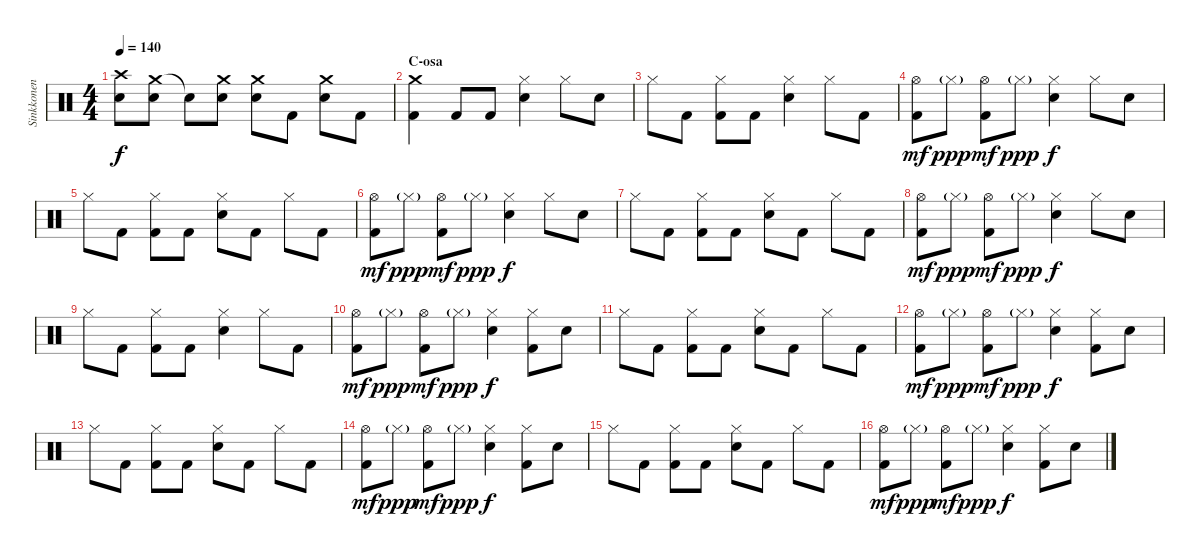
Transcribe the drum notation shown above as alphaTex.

\track ("Sinkkonen" "Sinkkonen") {instrument percussion}
\staff {score}
\articulation defaults
\ts (4 4)
\tempo 140
\clef neutral
\ks c
("Crash high (hit)" "Snare (hit) 2").8{dy f} ("Crash medium (hit)" "Snare (hit) 2").8 "Snare (hit) 2"{t}.8 ("Crash medium (hit)" "Snare (hit) 2").8 ("Crash medium (hit)" "Snare (hit) 2").8 "Kick (hit) 2".8 ("Crash medium (hit)" "Snare (hit) 2").8 "Kick (hit) 2".8 |
\section ("" "C-osa")
("Kick (hit) 2" "Crash medium (hit)").4 "Kick (hit) 2".8 "Kick (hit) 2".8 ("Hi-Hat (closed)" "Snare (hit) 2").4 "Hi-Hat (closed)".8 "Snare (hit) 2".8 |
"Hi-Hat (closed)".8 "Kick (hit) 2".8 ("Kick (hit) 2" "Hi-Hat (closed)").8 "Kick (hit) 2".8 ("Hi-Hat (closed)" "Snare (hit) 2").4 "Hi-Hat (closed)".8 "Kick (hit) 2".8 |
("Kick (hit) 2" "Hi-Hat (open)").8{dy mf} "Hi-Hat (closed)"{g}.8{dy ppp} ("Kick (hit) 2" "Hi-Hat (open)").8{dy mf} "Hi-Hat (closed)"{g}.8{dy ppp} ("Hi-Hat (closed)" "Snare (hit) 2").4{dy f} "Hi-Hat (closed)".8 "Snare (hit) 2".8 |
"Hi-Hat (closed)".8 "Kick (hit) 2".8 ("Kick (hit) 2" "Hi-Hat (closed)").8 "Kick (hit) 2".8 ("Hi-Hat (closed)" "Snare (hit) 2").8 "Kick (hit) 2".8 "Hi-Hat (closed)".8 "Kick (hit) 2".8 |
("Kick (hit) 2" "Hi-Hat (open)").8{dy mf} "Hi-Hat (closed)"{g}.8{dy ppp} ("Kick (hit) 2" "Hi-Hat (open)").8{dy mf} "Hi-Hat (closed)"{g}.8{dy ppp} ("Hi-Hat (closed)" "Snare (hit) 2").4{dy f} "Hi-Hat (closed)".8 "Snare (hit) 2".8 |
"Hi-Hat (closed)".8 "Kick (hit) 2".8 ("Kick (hit) 2" "Hi-Hat (closed)").8 "Kick (hit) 2".8 ("Hi-Hat (closed)" "Snare (hit) 2").8 "Kick (hit) 2".8 "Hi-Hat (closed)".8 "Kick (hit) 2".8 |
("Kick (hit) 2" "Hi-Hat (open)").8{dy mf} "Hi-Hat (closed)"{g}.8{dy ppp} ("Kick (hit) 2" "Hi-Hat (open)").8{dy mf} "Hi-Hat (closed)"{g}.8{dy ppp} ("Hi-Hat (closed)" "Snare (hit) 2").4{dy f} "Hi-Hat (closed)".8 "Snare (hit) 2".8 |
"Hi-Hat (closed)".8 "Kick (hit) 2".8 ("Kick (hit) 2" "Hi-Hat (closed)").8 "Kick (hit) 2".8 ("Hi-Hat (closed)" "Snare (hit) 2").4 "Hi-Hat (closed)".8 "Kick (hit) 2".8 |
("Kick (hit) 2" "Hi-Hat (open)").8{dy mf} "Hi-Hat (closed)"{g}.8{dy ppp} ("Kick (hit) 2" "Hi-Hat (open)").8{dy mf} "Hi-Hat (closed)"{g}.8{dy ppp} ("Hi-Hat (closed)" "Snare (hit) 2").4{dy f} ("Kick (hit) 2" "Hi-Hat (closed)").8 "Snare (hit) 2".8 |
"Hi-Hat (closed)".8 "Kick (hit) 2".8 ("Kick (hit) 2" "Hi-Hat (closed)").8 "Kick (hit) 2".8 ("Hi-Hat (closed)" "Snare (hit) 2").8 "Kick (hit) 2".8 "Hi-Hat (closed)".8 "Kick (hit) 2".8 |
("Kick (hit) 2" "Hi-Hat (open)").8{dy mf} "Hi-Hat (closed)"{g}.8{dy ppp} ("Kick (hit) 2" "Hi-Hat (open)").8{dy mf} "Hi-Hat (closed)"{g}.8{dy ppp} ("Hi-Hat (closed)" "Snare (hit) 2").4{dy f} ("Kick (hit) 2" "Hi-Hat (closed)").8 "Snare (hit) 2".8 |
"Hi-Hat (closed)".8 "Kick (hit) 2".8 ("Kick (hit) 2" "Hi-Hat (closed)").8 "Kick (hit) 2".8 ("Hi-Hat (closed)" "Snare (hit) 2").8 "Kick (hit) 2".8 "Hi-Hat (closed)".8 "Kick (hit) 2".8 |
("Kick (hit) 2" "Hi-Hat (open)").8{dy mf} "Hi-Hat (closed)"{g}.8{dy ppp} ("Kick (hit) 2" "Hi-Hat (open)").8{dy mf} "Hi-Hat (closed)"{g}.8{dy ppp} ("Hi-Hat (closed)" "Snare (hit) 2").4{dy f} ("Kick (hit) 2" "Hi-Hat (closed)").8 "Snare (hit) 2".8 |
"Hi-Hat (closed)".8 "Kick (hit) 2".8 ("Kick (hit) 2" "Hi-Hat (closed)").8 "Kick (hit) 2".8 ("Hi-Hat (closed)" "Snare (hit) 2").8 "Kick (hit) 2".8 "Hi-Hat (closed)".8 "Kick (hit) 2".8 |
("Kick (hit) 2" "Hi-Hat (open)").8{dy mf} "Hi-Hat (closed)"{g}.8{dy ppp} ("Kick (hit) 2" "Hi-Hat (open)").8{dy mf} "Hi-Hat (closed)"{g}.8{dy ppp} ("Hi-Hat (closed)" "Snare (hit) 2").4{dy f} ("Kick (hit) 2" "Hi-Hat (closed)").8 "Snare (hit) 2".8
